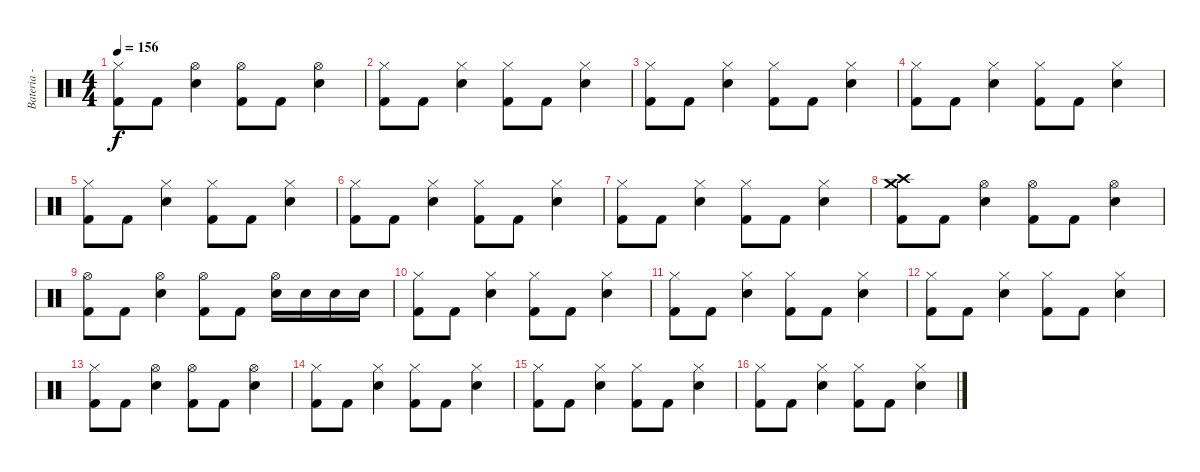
\track ("Bateria - Kalú" "Bateria - ") {instrument percussion}
\staff {score}
\articulation defaults
\ts (4 4)
\tempo 156
\clef neutral
\ks c
("Hi-Hat (closed)" "Kick (hit) 2").8{dy f} "Kick (hit) 2".8 ("Hi-Hat (open)" "Electric Snare (hit)").4 ("Hi-Hat (open)" "Kick (hit) 2").8 "Kick (hit) 2".8 ("Hi-Hat (open)" "Electric Snare (hit)").4 |
("Hi-Hat (closed)" "Kick (hit) 2").8 "Kick (hit) 2".8 ("Hi-Hat (closed)" "Electric Snare (hit)").4 ("Hi-Hat (closed)" "Kick (hit) 2").8 "Kick (hit) 2".8 ("Hi-Hat (closed)" "Electric Snare (hit)").4 |
("Hi-Hat (closed)" "Kick (hit) 2").8 "Kick (hit) 2".8 ("Hi-Hat (closed)" "Electric Snare (hit)").4 ("Hi-Hat (closed)" "Kick (hit) 2").8 "Kick (hit) 2".8 ("Hi-Hat (closed)" "Electric Snare (hit)").4 |
("Hi-Hat (closed)" "Kick (hit) 2").8 "Kick (hit) 2".8 ("Hi-Hat (closed)" "Electric Snare (hit)").4 ("Hi-Hat (closed)" "Kick (hit) 2").8 "Kick (hit) 2".8 ("Hi-Hat (closed)" "Electric Snare (hit)").4 |
("Hi-Hat (closed)" "Kick (hit) 2").8 "Kick (hit) 2".8 ("Hi-Hat (closed)" "Electric Snare (hit)").4 ("Hi-Hat (closed)" "Kick (hit) 2").8 "Kick (hit) 2".8 ("Hi-Hat (closed)" "Electric Snare (hit)").4 |
("Hi-Hat (closed)" "Kick (hit) 2").8 "Kick (hit) 2".8 ("Hi-Hat (closed)" "Electric Snare (hit)").4 ("Hi-Hat (closed)" "Kick (hit) 2").8 "Kick (hit) 2".8 ("Hi-Hat (closed)" "Electric Snare (hit)").4 |
("Hi-Hat (closed)" "Kick (hit) 2").8 "Kick (hit) 2".8 ("Hi-Hat (closed)" "Electric Snare (hit)").4 ("Hi-Hat (closed)" "Kick (hit) 2").8 "Kick (hit) 2".8 ("Hi-Hat (closed)" "Electric Snare (hit)").4 |
("Crash high (hit)" "Crash medium (hit)" "Kick (hit) 2").8 "Kick (hit) 2".8 ("Hi-Hat (open)" "Electric Snare (hit)").4 ("Hi-Hat (open)" "Kick (hit) 2").8 "Kick (hit) 2".8 ("Hi-Hat (open)" "Electric Snare (hit)").4 |
("Hi-Hat (open)" "Kick (hit) 2").8 "Kick (hit) 2".8 ("Hi-Hat (open)" "Electric Snare (hit)").4 ("Hi-Hat (open)" "Kick (hit) 2").8 "Kick (hit) 2".8 ("Hi-Hat (open)" "Electric Snare (hit)").16 "Electric Snare (hit)".16 "Electric Snare (hit)".16 "Electric Snare (hit)".16 |
("Hi-Hat (closed)" "Kick (hit) 2").8 "Kick (hit) 2".8 ("Hi-Hat (closed)" "Electric Snare (hit)").4 ("Hi-Hat (closed)" "Kick (hit) 2").8 "Kick (hit) 2".8 ("Hi-Hat (closed)" "Electric Snare (hit)").4 |
("Hi-Hat (closed)" "Kick (hit) 2").8 "Kick (hit) 2".8 ("Hi-Hat (closed)" "Electric Snare (hit)").4 ("Hi-Hat (closed)" "Kick (hit) 2").8 "Kick (hit) 2".8 ("Hi-Hat (closed)" "Electric Snare (hit)").4 |
("Hi-Hat (closed)" "Kick (hit) 2").8 "Kick (hit) 2".8 ("Hi-Hat (closed)" "Electric Snare (hit)").4 ("Hi-Hat (closed)" "Kick (hit) 2").8 "Kick (hit) 2".8 ("Hi-Hat (closed)" "Electric Snare (hit)").4 |
("Hi-Hat (closed)" "Kick (hit) 2").8 "Kick (hit) 2".8 ("Hi-Hat (open)" "Electric Snare (hit)").4 ("Hi-Hat (open)" "Kick (hit) 2").8 "Kick (hit) 2".8 ("Hi-Hat (open)" "Electric Snare (hit)").4 |
("Hi-Hat (closed)" "Kick (hit) 2").8 "Kick (hit) 2".8 ("Hi-Hat (closed)" "Electric Snare (hit)").4 ("Hi-Hat (closed)" "Kick (hit) 2").8 "Kick (hit) 2".8 ("Hi-Hat (closed)" "Electric Snare (hit)").4 |
("Hi-Hat (closed)" "Kick (hit) 2").8 "Kick (hit) 2".8 ("Hi-Hat (closed)" "Electric Snare (hit)").4 ("Hi-Hat (closed)" "Kick (hit) 2").8 "Kick (hit) 2".8 ("Hi-Hat (closed)" "Electric Snare (hit)").4 |
("Hi-Hat (closed)" "Kick (hit) 2").8 "Kick (hit) 2".8 ("Hi-Hat (closed)" "Electric Snare (hit)").4 ("Hi-Hat (closed)" "Kick (hit) 2").8 "Kick (hit) 2".8 ("Hi-Hat (closed)" "Electric Snare (hit)").4
